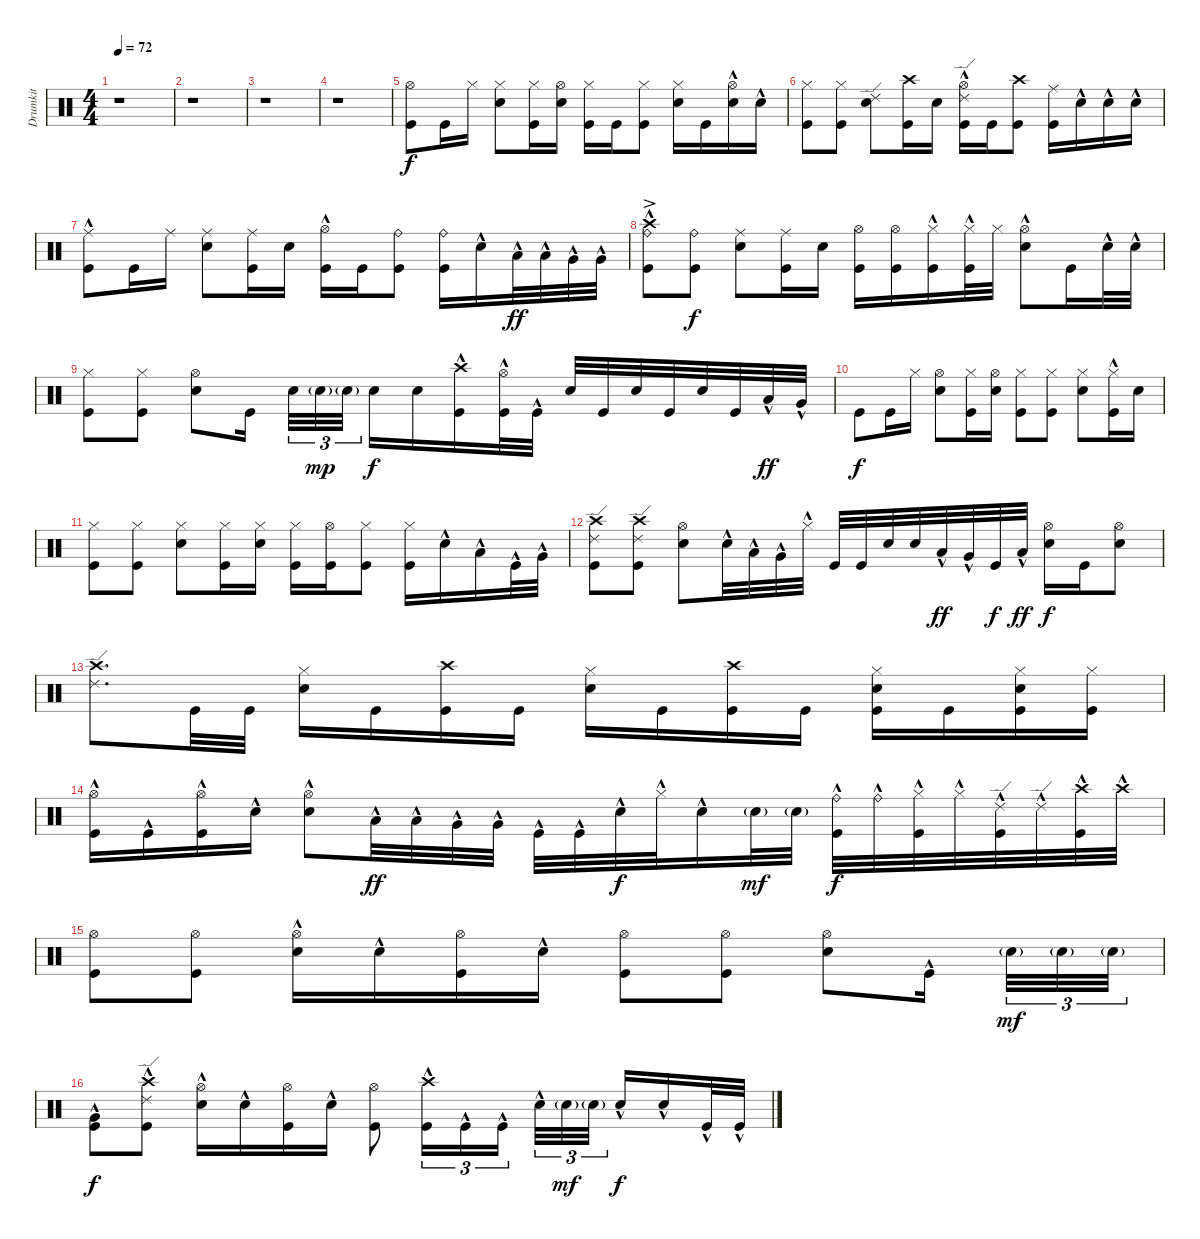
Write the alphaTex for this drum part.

\track ("Drumkit" "Drumkit") {instrument percussion}
\staff {score}
\articulation defaults
\ts (4 4)
\tempo 72
\clef neutral
\ks c
r.1{dy f} |
r.1 |
r.1 |
r.1 |
("Kick (hit)" "Hi-Hat (open)").8 "Kick (hit)".16 "Hi-Hat (closed)".16 ("Snare (hit) 2" "Hi-Hat (closed)").8 ("Kick (hit)" "Hi-Hat (closed)").16 ("Snare (hit) 2" "Hi-Hat (open)").16 ("Kick (hit)" "Hi-Hat (closed)").16 "Kick (hit)".16 ("Kick (hit)" "Hi-Hat (closed)").8 ("Snare (hit) 2" "Hi-Hat (closed)").16 "Kick (hit)".16 ("Snare (hit) 2"{hac} "Hi-Hat (open)"{hac}).16 "Snare (hit) 2"{hac}.16 |
("Kick (hit)" "Hi-Hat (closed)").8 ("Kick (hit)" "Hi-Hat (closed)").8 ("Snare (hit) 2" "Ride (edge) 2").8 ("Kick (hit)" "Crash high (hit)").16 "Snare (hit) 2".16 ("Kick (hit)" "Ride (edge) 2"{hac} "Hi-Hat (open)"{hac}).16 "Kick (hit)".16 ("Kick (hit)" "Crash high (hit)").8 ("Kick (hit)" "Ride (middle)").16 "Snare (hit) 2"{hac}.16 "Snare (hit) 2"{hac}.16 "Snare (hit) 2"{hac}.16 |
("Kick (hit)"{hac} "Ride (middle)").8 "Kick (hit)".16 "Ride (middle)".16 ("Snare (hit) 2" "Ride (middle)").8 ("Kick (hit)" "Ride (middle)").16 "Snare (hit) 2".16 ("Kick (hit)" "Hi-Hat (open)"{hac}).16 "Kick (hit)".16 ("Kick (hit)" "Ride (bell)").8 ("Kick (hit)" "Ride (bell)").16 "Snare (hit) 2"{hac}.16 "Low Tom (hit)"{hac}.32{dy ff} "Low Tom (hit)"{hac}.32 "Very Low Tom (hit)"{hac}.32 "Very Low Tom (hit)"{hac}.32 |
("Kick (hit)"{hac} "Ride (bell)" "Crash high (hit)"{ac}).8 ("Kick (hit)" "Ride (bell)").8{dy f} ("Snare (hit) 2" "Ride (middle)").8 ("Kick (hit)" "Ride (middle)").16 "Snare (hit) 2".16 ("Kick (hit)" "Hi-Hat (open)").16 ("Kick (hit)" "Hi-Hat (open)").16 ("Kick (hit)"{hac} "Hi-Hat (closed)").16 ("Kick (hit)"{hac} "Hi-Hat (closed)").32 "Hi-Hat (closed)".32 ("Snare (hit) 2" "Hi-Hat (open)"{hac}).8 "Kick (hit)".16 "Snare (hit) 2"{hac}.32 "Snare (hit) 2"{hac}.32 |
("Kick (hit)" "Hi-Hat (closed)").8 ("Kick (hit)" "Hi-Hat (closed)").8 ("Snare (hit) 2" "Hi-Hat (open)").8 "Kick (hit)".16 "Snare (hit) 2".32{tu (3 2)} "Snare (hit) 2"{g}.32{tu (3 2) dy mp} "Snare (hit) 2"{g}.32{tu (3 2)} "Snare (hit) 2".16{dy f} "Snare (hit) 2".16 ("Kick (hit)"{hac} "Crash high (hit)").16 ("Kick (hit)"{hac} "Hi-Hat (open)").32 "Kick (hit)"{hac}.32 "Snare (hit) 2".32 "Kick (hit)".32 "Snare (hit) 2".32 "Kick (hit)".32 "Snare (hit) 2".32 "Kick (hit)".32 "Low Tom (hit)"{hac}.32{dy ff} "Very Low Tom (hit)"{hac}.32 |
"Kick (hit)".8{dy f} "Kick (hit)".16 "Hi-Hat (closed)".16 ("Snare (hit) 2" "Hi-Hat (open)").8 ("Kick (hit)" "Hi-Hat (closed)").16 ("Snare (hit) 2" "Hi-Hat (open)").16 ("Kick (hit)" "Hi-Hat (closed)").8 ("Kick (hit)" "Hi-Hat (closed)").8 ("Snare (hit) 2" "Hi-Hat (closed)").8 ("Kick (hit)"{hac} "Hi-Hat (closed)").16 "Snare (hit) 2".16 |
("Kick (hit)" "Hi-Hat (closed)").8 ("Kick (hit)" "Hi-Hat (closed)").8 ("Snare (hit) 2" "Hi-Hat (closed)").8 ("Kick (hit)" "Hi-Hat (closed)").16 ("Snare (hit) 2" "Hi-Hat (closed)").16 ("Kick (hit)" "Hi-Hat (closed)").16 ("Kick (hit)" "Hi-Hat (open)").16 ("Kick (hit)" "Hi-Hat (closed)").8 ("Kick (hit)" "Hi-Hat (closed)").16 "Snare (hit) 2"{hac}.16 "Low Tom (hit)"{hac}.16 "Kick (hit)"{hac}.32 "Very Low Tom (hit)"{hac}.32 |
("Kick (hit)" "Ride (edge) 2" "Crash high (hit)").8 ("Kick (hit)" "Ride (edge) 2" "Crash high (hit)").8 ("Snare (hit) 2" "Hi-Hat (open)").8 "Snare (hit) 2"{hac}.32 "Low Tom (hit)"{hac}.32 "Very Low Tom (hit)"{hac}.32 "Hi-Hat (closed)"{hac}.32 "Kick (hit)".32 "Kick (hit)".32 "Snare (hit) 2".32 "Snare (hit) 2".32 "Low Tom (hit)"{hac}.32{dy ff} "Very Low Tom (hit)"{hac}.32 "Kick (hit)".32{dy f} "Low Tom (hit)"{hac}.32{dy ff} ("Snare (hit) 2" "Hi-Hat (open)").16{dy f} "Kick (hit)".16 ("Snare (hit) 2" "Hi-Hat (open)").8 |
("Crash high (hit)" "Ride (edge) 2").8{d} "Kick (hit)".32 "Kick (hit)".32 ("Snare (hit) 2" "Hi-Hat (closed)").16 "Kick (hit)".16 ("Kick (hit)" "Crash high (hit)").16 "Kick (hit)".16 ("Snare (hit) 2" "Hi-Hat (closed)").16 "Kick (hit)".16 ("Kick (hit)" "Crash high (hit)").16 "Kick (hit)".16 ("Kick (hit)" "Snare (hit) 2" "Hi-Hat (closed)").16 "Kick (hit)".16 ("Kick (hit)" "Snare (hit) 2" "Hi-Hat (closed)").16 ("Kick (hit)" "Hi-Hat (closed)").16 |
("Kick (hit)"{hac} "Hi-Hat (open)"{hac}).16 "Kick (hit)"{hac}.16 ("Kick (hit)"{hac} "Hi-Hat (open)"{hac}).16 "Snare (hit) 2"{hac}.16 ("Snare (hit) 2"{hac} "Hi-Hat (open)"{hac}).8 "Low Tom (hit)"{hac}.32{dy ff} "Low Tom (hit)"{hac}.32 "Very Low Tom (hit)"{hac}.32 "Very Low Tom (hit)"{hac}.32 "Kick (hit)"{hac}.32 "Kick (hit)"{hac}.32 "Snare (hit) 2"{hac}.32{dy f} "Hi-Hat (closed)"{hac}.32 "Snare (hit) 2"{hac}.16 "Snare (hit) 2"{g}.32{dy mf} "Snare (hit) 2"{g}.32 ("Ride (bell)"{hac} "Kick (hit)"{hac}).32{dy f} "Ride (bell)"{hac}.32 ("Hi-Hat (closed)"{hac} "Kick (hit)"{hac}).32 "Hi-Hat (closed)"{hac}.32 ("Kick (hit)"{hac} "Ride (edge) 2"{hac}).32 "Ride (edge) 2"{hac}.32 ("Kick (hit)"{hac} "Crash high (hit)"{hac}).32 "Crash high (hit)"{hac}.32 |
("Kick (hit)" "Hi-Hat (open)").8 ("Kick (hit)" "Hi-Hat (open)").8 ("Snare (hit) 2"{hac} "Hi-Hat (open)").16 "Snare (hit) 2"{hac}.16 ("Kick (hit)" "Hi-Hat (open)").16 "Snare (hit) 2"{hac}.16 ("Kick (hit)" "Hi-Hat (open)").8 ("Kick (hit)" "Hi-Hat (open)").8 ("Snare (hit) 2" "Hi-Hat (open)").8 "Kick (hit)"{hac}.16 "Snare (hit) 2"{g}.32{tu (3 2) dy mf} "Snare (hit) 2"{g}.32{tu (3 2)} "Snare (hit) 2"{g}.32{tu (3 2)} |
("Kick (hit)" "Very Low Tom (hit)"{hac}).8{dy f} ("Kick (hit)" "Crash high (hit)"{hac} "Ride (edge) 2"{hac}).8 ("Snare (hit) 2"{hac} "Hi-Hat (open)").16 "Snare (hit) 2"{hac}.16 ("Kick (hit)" "Hi-Hat (open)").16 "Snare (hit) 2"{hac}.16 ("Kick (hit)" "Hi-Hat (open)").8 ("Kick (hit)"{hac} "Crash high (hit)"{hac}).16{tu (3 2)} "Kick (hit)"{hac}.16{tu (3 2)} "Kick (hit)"{hac}.16{tu (3 2)} "Snare (hit) 2"{hac}.32{tu (3 2)} "Snare (hit) 2"{g}.32{tu (3 2) dy mf} "Snare (hit) 2"{g}.32{tu (3 2)} "Snare (hit) 2"{hac}.16{dy f} "Snare (hit) 2"{hac}.16 "Kick (hit)"{hac}.32 "Kick (hit)"{hac}.32
